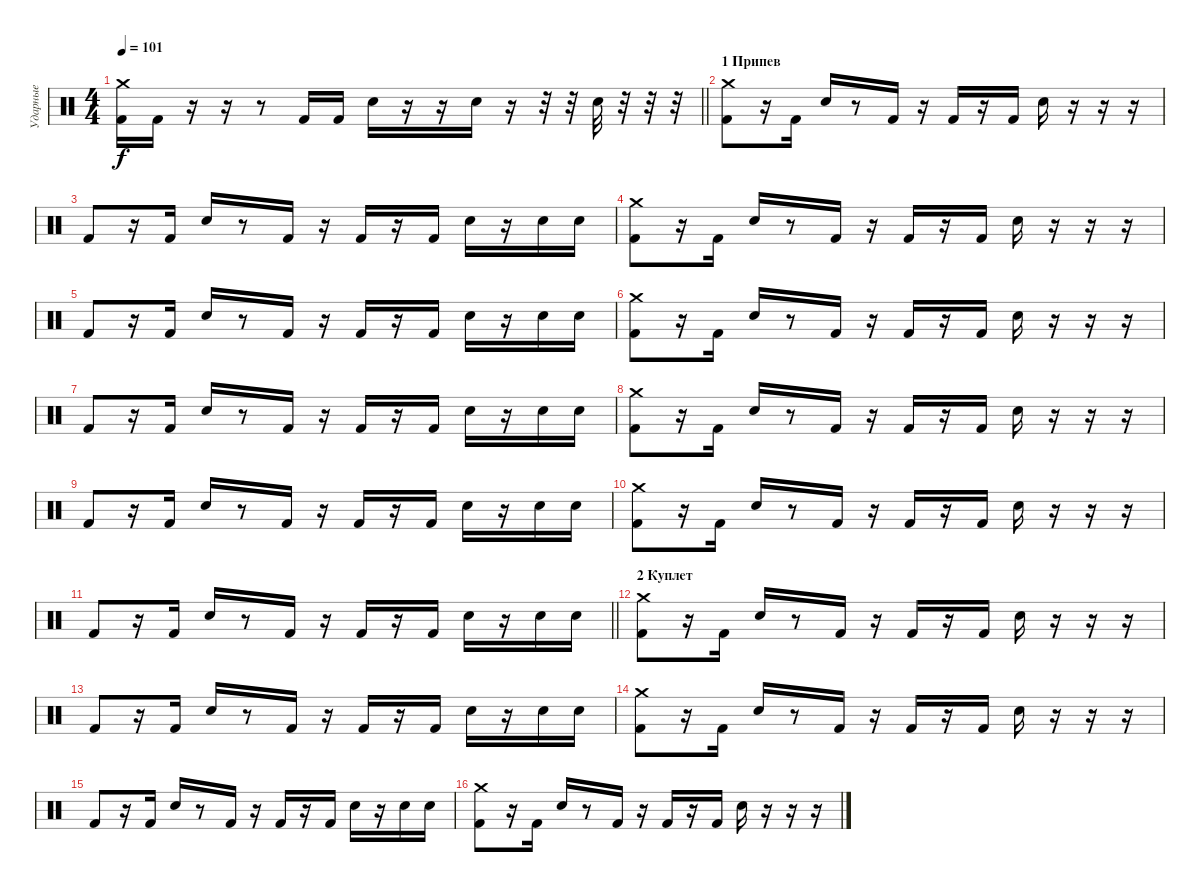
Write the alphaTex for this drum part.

\track ("Ударные" "Ударные") {instrument percussion}
\staff {score}
\articulation defaults
\ts (4 4)
\tempo 101
\clef neutral
\barLineRight lightlight
\ks c
("Crash medium (hit)" "Kick (hit) 2").16{dy f} "Kick (hit) 2".16 r.16 r.16 r.8 "Kick (hit) 2".16 "Kick (hit) 2".16 "Snare (hit) 2".16 r.16 r.16 "Snare (hit) 2".16 r.16 r.32 r.32 "Snare (hit) 2".32 r.32 r.32 r.32 |
\section ("" "1 Припев")
("Crash medium (hit)" "Kick (hit) 2").8 r.16 "Kick (hit) 2".16 "Snare (hit) 2".16 r.8 "Kick (hit) 2".16 r.16 "Kick (hit) 2".16 r.16 "Kick (hit) 2".16 "Snare (hit) 2".16 r.16 r.16 r.16 |
"Kick (hit) 2".8 r.16 "Kick (hit) 2".16 "Snare (hit) 2".16 r.8 "Kick (hit) 2".16 r.16 "Kick (hit) 2".16 r.16 "Kick (hit) 2".16 "Snare (hit) 2".16 r.16 "Snare (hit) 2".16 "Snare (hit) 2".16 |
("Crash medium (hit)" "Kick (hit) 2").8 r.16 "Kick (hit) 2".16 "Snare (hit) 2".16 r.8 "Kick (hit) 2".16 r.16 "Kick (hit) 2".16 r.16 "Kick (hit) 2".16 "Snare (hit) 2".16 r.16 r.16 r.16 |
"Kick (hit) 2".8 r.16 "Kick (hit) 2".16 "Snare (hit) 2".16 r.8 "Kick (hit) 2".16 r.16 "Kick (hit) 2".16 r.16 "Kick (hit) 2".16 "Snare (hit) 2".16 r.16 "Snare (hit) 2".16 "Snare (hit) 2".16 |
("Crash medium (hit)" "Kick (hit) 2").8 r.16 "Kick (hit) 2".16 "Snare (hit) 2".16 r.8 "Kick (hit) 2".16 r.16 "Kick (hit) 2".16 r.16 "Kick (hit) 2".16 "Snare (hit) 2".16 r.16 r.16 r.16 |
"Kick (hit) 2".8 r.16 "Kick (hit) 2".16 "Snare (hit) 2".16 r.8 "Kick (hit) 2".16 r.16 "Kick (hit) 2".16 r.16 "Kick (hit) 2".16 "Snare (hit) 2".16 r.16 "Snare (hit) 2".16 "Snare (hit) 2".16 |
("Crash medium (hit)" "Kick (hit) 2").8 r.16 "Kick (hit) 2".16 "Snare (hit) 2".16 r.8 "Kick (hit) 2".16 r.16 "Kick (hit) 2".16 r.16 "Kick (hit) 2".16 "Snare (hit) 2".16 r.16 r.16 r.16 |
"Kick (hit) 2".8 r.16 "Kick (hit) 2".16 "Snare (hit) 2".16 r.8 "Kick (hit) 2".16 r.16 "Kick (hit) 2".16 r.16 "Kick (hit) 2".16 "Snare (hit) 2".16 r.16 "Snare (hit) 2".16 "Snare (hit) 2".16 |
("Crash medium (hit)" "Kick (hit) 2").8 r.16 "Kick (hit) 2".16 "Snare (hit) 2".16 r.8 "Kick (hit) 2".16 r.16 "Kick (hit) 2".16 r.16 "Kick (hit) 2".16 "Snare (hit) 2".16 r.16 r.16 r.16 |
\barLineRight lightlight "Kick (hit) 2".8
r.16 "Kick (hit) 2".16 "Snare (hit) 2".16 r.8 "Kick (hit) 2".16 r.16 "Kick (hit) 2".16 r.16 "Kick (hit) 2".16 "Snare (hit) 2".16 r.16 "Snare (hit) 2".16 "Snare (hit) 2".16 |
\section ("" "2 Куплет")
("Crash medium (hit)" "Kick (hit) 2").8 r.16 "Kick (hit) 2".16 "Snare (hit) 2".16 r.8 "Kick (hit) 2".16 r.16 "Kick (hit) 2".16 r.16 "Kick (hit) 2".16 "Snare (hit) 2".16 r.16 r.16 r.16 |
"Kick (hit) 2".8 r.16 "Kick (hit) 2".16 "Snare (hit) 2".16 r.8 "Kick (hit) 2".16 r.16 "Kick (hit) 2".16 r.16 "Kick (hit) 2".16 "Snare (hit) 2".16 r.16 "Snare (hit) 2".16 "Snare (hit) 2".16 |
("Crash medium (hit)" "Kick (hit) 2").8 r.16 "Kick (hit) 2".16 "Snare (hit) 2".16 r.8 "Kick (hit) 2".16 r.16 "Kick (hit) 2".16 r.16 "Kick (hit) 2".16 "Snare (hit) 2".16 r.16 r.16 r.16 |
"Kick (hit) 2".8 r.16 "Kick (hit) 2".16 "Snare (hit) 2".16 r.8 "Kick (hit) 2".16 r.16 "Kick (hit) 2".16 r.16 "Kick (hit) 2".16 "Snare (hit) 2".16 r.16 "Snare (hit) 2".16 "Snare (hit) 2".16 |
("Crash medium (hit)" "Kick (hit) 2").8 r.16 "Kick (hit) 2".16 "Snare (hit) 2".16 r.8 "Kick (hit) 2".16 r.16 "Kick (hit) 2".16 r.16 "Kick (hit) 2".16 "Snare (hit) 2".16 r.16 r.16 r.16
